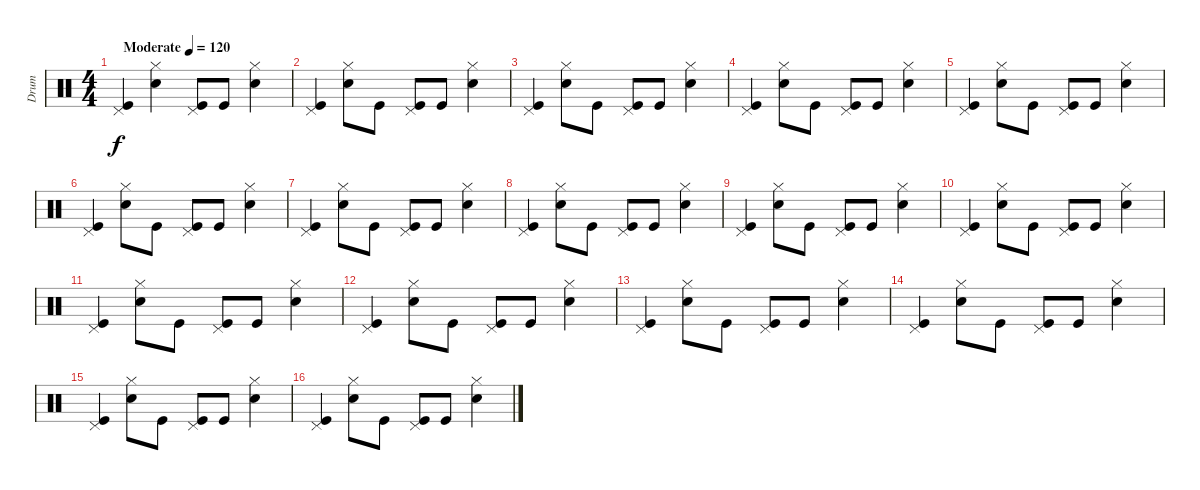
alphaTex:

\track ("Drum" "Drum") {instrument percussion}
\staff {score}
\articulation defaults
\ts (4 4)
\tempo (120 "Moderate")
\clef neutral
\ks c
("Pedal Hi-Hat (hit)" "Kick (hit)").4{dy f} ("Hi-Hat (closed)" "Snare (hit) 2").4 ("Pedal Hi-Hat (hit)" "Kick (hit)").8 "Kick (hit)".8 ("Hi-Hat (closed)" "Snare (hit) 2").4 |
("Pedal Hi-Hat (hit)" "Kick (hit)").4 ("Hi-Hat (closed)" "Snare (hit) 2").8 "Kick (hit)".8 ("Pedal Hi-Hat (hit)" "Kick (hit)").8 "Kick (hit)".8 ("Hi-Hat (closed)" "Snare (hit) 2").4 |
("Pedal Hi-Hat (hit)" "Kick (hit)").4 ("Hi-Hat (closed)" "Snare (hit) 2").8 "Kick (hit)".8 ("Pedal Hi-Hat (hit)" "Kick (hit)").8 "Kick (hit)".8 ("Hi-Hat (closed)" "Snare (hit) 2").4 |
("Pedal Hi-Hat (hit)" "Kick (hit)").4 ("Hi-Hat (closed)" "Snare (hit) 2").8 "Kick (hit)".8 ("Pedal Hi-Hat (hit)" "Kick (hit)").8 "Kick (hit)".8 ("Hi-Hat (closed)" "Snare (hit) 2").4 |
("Pedal Hi-Hat (hit)" "Kick (hit)").4 ("Hi-Hat (closed)" "Snare (hit) 2").8 "Kick (hit)".8 ("Pedal Hi-Hat (hit)" "Kick (hit)").8 "Kick (hit)".8 ("Hi-Hat (closed)" "Snare (hit) 2").4 |
("Pedal Hi-Hat (hit)" "Kick (hit)").4 ("Hi-Hat (closed)" "Snare (hit) 2").8 "Kick (hit)".8 ("Pedal Hi-Hat (hit)" "Kick (hit)").8 "Kick (hit)".8 ("Hi-Hat (closed)" "Snare (hit) 2").4 |
("Pedal Hi-Hat (hit)" "Kick (hit)").4 ("Hi-Hat (closed)" "Snare (hit) 2").8 "Kick (hit)".8 ("Pedal Hi-Hat (hit)" "Kick (hit)").8 "Kick (hit)".8 ("Hi-Hat (closed)" "Snare (hit) 2").4 |
("Pedal Hi-Hat (hit)" "Kick (hit)").4 ("Hi-Hat (closed)" "Snare (hit) 2").8 "Kick (hit)".8 ("Pedal Hi-Hat (hit)" "Kick (hit)").8 "Kick (hit)".8 ("Hi-Hat (closed)" "Snare (hit) 2").4 |
("Pedal Hi-Hat (hit)" "Kick (hit)").4 ("Hi-Hat (closed)" "Snare (hit) 2").8 "Kick (hit)".8 ("Pedal Hi-Hat (hit)" "Kick (hit)").8 "Kick (hit)".8 ("Hi-Hat (closed)" "Snare (hit) 2").4 |
("Pedal Hi-Hat (hit)" "Kick (hit)").4 ("Hi-Hat (closed)" "Snare (hit) 2").8 "Kick (hit)".8 ("Pedal Hi-Hat (hit)" "Kick (hit)").8 "Kick (hit)".8 ("Hi-Hat (closed)" "Snare (hit) 2").4 |
("Pedal Hi-Hat (hit)" "Kick (hit)").4 ("Hi-Hat (closed)" "Snare (hit) 2").8 "Kick (hit)".8 ("Pedal Hi-Hat (hit)" "Kick (hit)").8 "Kick (hit)".8 ("Hi-Hat (closed)" "Snare (hit) 2").4 |
("Pedal Hi-Hat (hit)" "Kick (hit)").4 ("Hi-Hat (closed)" "Snare (hit) 2").8 "Kick (hit)".8 ("Pedal Hi-Hat (hit)" "Kick (hit)").8 "Kick (hit)".8 ("Hi-Hat (closed)" "Snare (hit) 2").4 |
("Pedal Hi-Hat (hit)" "Kick (hit)").4 ("Hi-Hat (closed)" "Snare (hit) 2").8 "Kick (hit)".8 ("Pedal Hi-Hat (hit)" "Kick (hit)").8 "Kick (hit)".8 ("Hi-Hat (closed)" "Snare (hit) 2").4 |
("Pedal Hi-Hat (hit)" "Kick (hit)").4 ("Hi-Hat (closed)" "Snare (hit) 2").8 "Kick (hit)".8 ("Pedal Hi-Hat (hit)" "Kick (hit)").8 "Kick (hit)".8 ("Hi-Hat (closed)" "Snare (hit) 2").4 |
("Pedal Hi-Hat (hit)" "Kick (hit)").4 ("Hi-Hat (closed)" "Snare (hit) 2").8 "Kick (hit)".8 ("Pedal Hi-Hat (hit)" "Kick (hit)").8 "Kick (hit)".8 ("Hi-Hat (closed)" "Snare (hit) 2").4 |
("Pedal Hi-Hat (hit)" "Kick (hit)").4 ("Hi-Hat (closed)" "Snare (hit) 2").8 "Kick (hit)".8 ("Pedal Hi-Hat (hit)" "Kick (hit)").8 "Kick (hit)".8 ("Hi-Hat (closed)" "Snare (hit) 2").4
